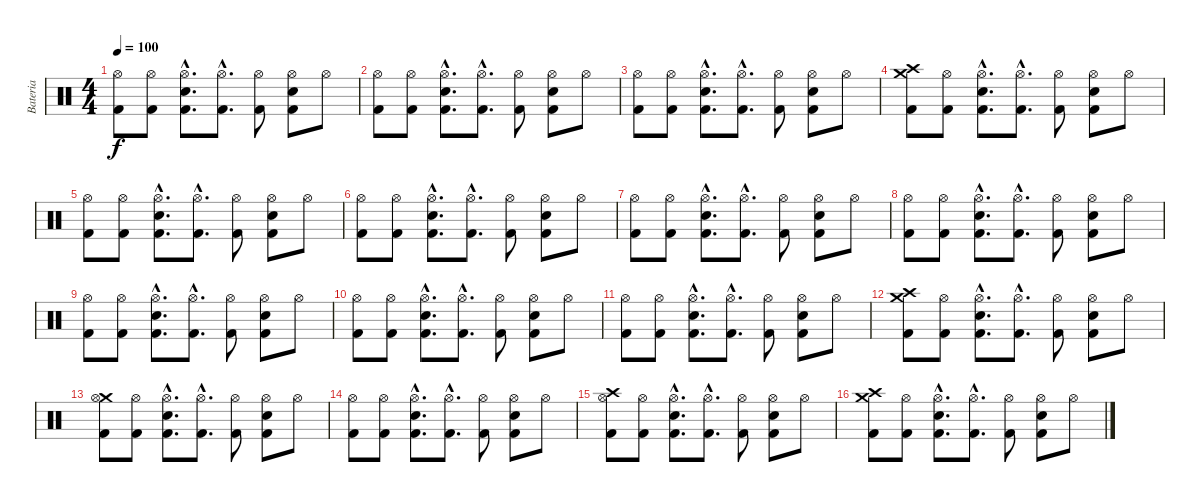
\track ("Bateria" "Bateria") {instrument percussion}
\staff {score}
\articulation defaults
\ts (4 4)
\tempo 100
\clef neutral
\ks c
("Kick (hit) 2" "Hi-Hat (open)").8{dy f} ("Kick (hit) 2" "Hi-Hat (open)").8 ("Kick (hit) 2"{hac} "Electric Snare (hit)"{hac} "Hi-Hat (open)"{hac}).8{d} ("Kick (hit) 2"{hac} "Hi-Hat (open)"{hac}).8{d} ("Kick (hit) 2" "Hi-Hat (open)").8 ("Kick (hit) 2" "Electric Snare (hit)" "Hi-Hat (open)").8 "Hi-Hat (open)".8 |
("Kick (hit) 2" "Hi-Hat (open)").8 ("Kick (hit) 2" "Hi-Hat (open)").8 ("Kick (hit) 2"{hac} "Electric Snare (hit)"{hac} "Hi-Hat (open)"{hac}).8{d} ("Kick (hit) 2"{hac} "Hi-Hat (open)"{hac}).8{d} ("Kick (hit) 2" "Hi-Hat (open)").8 ("Kick (hit) 2" "Electric Snare (hit)" "Hi-Hat (open)").8 "Hi-Hat (open)".8 |
("Kick (hit) 2" "Hi-Hat (open)").8 ("Kick (hit) 2" "Hi-Hat (open)").8 ("Kick (hit) 2"{hac} "Electric Snare (hit)"{hac} "Hi-Hat (open)"{hac}).8{d} ("Kick (hit) 2"{hac} "Hi-Hat (open)"{hac}).8{d} ("Kick (hit) 2" "Hi-Hat (open)").8 ("Kick (hit) 2" "Electric Snare (hit)" "Hi-Hat (open)").8 "Hi-Hat (open)".8 |
("Kick (hit) 2" "Crash medium (hit)" "Crash high (hit)").8 ("Kick (hit) 2" "Hi-Hat (open)").8 ("Kick (hit) 2"{hac} "Electric Snare (hit)"{hac} "Hi-Hat (open)"{hac}).8{d} ("Kick (hit) 2"{hac} "Hi-Hat (open)"{hac}).8{d} ("Kick (hit) 2" "Hi-Hat (open)").8 ("Kick (hit) 2" "Electric Snare (hit)" "Hi-Hat (open)").8 "Hi-Hat (open)".8 |
("Kick (hit) 2" "Hi-Hat (open)").8 ("Kick (hit) 2" "Hi-Hat (open)").8 ("Kick (hit) 2"{hac} "Electric Snare (hit)"{hac} "Hi-Hat (open)"{hac}).8{d} ("Kick (hit) 2"{hac} "Hi-Hat (open)"{hac}).8{d} ("Kick (hit) 2" "Hi-Hat (open)").8 ("Kick (hit) 2" "Electric Snare (hit)" "Hi-Hat (open)").8 "Hi-Hat (open)".8 |
("Kick (hit) 2" "Hi-Hat (open)").8 ("Kick (hit) 2" "Hi-Hat (open)").8 ("Kick (hit) 2"{hac} "Electric Snare (hit)"{hac} "Hi-Hat (open)"{hac}).8{d} ("Kick (hit) 2"{hac} "Hi-Hat (open)"{hac}).8{d} ("Kick (hit) 2" "Hi-Hat (open)").8 ("Kick (hit) 2" "Electric Snare (hit)" "Hi-Hat (open)").8 "Hi-Hat (open)".8 |
("Kick (hit) 2" "Hi-Hat (open)").8 ("Kick (hit) 2" "Hi-Hat (open)").8 ("Kick (hit) 2"{hac} "Electric Snare (hit)"{hac} "Hi-Hat (open)"{hac}).8{d} ("Kick (hit) 2"{hac} "Hi-Hat (open)"{hac}).8{d} ("Kick (hit) 2" "Hi-Hat (open)").8 ("Kick (hit) 2" "Electric Snare (hit)" "Hi-Hat (open)").8 "Hi-Hat (open)".8 |
("Kick (hit) 2" "Hi-Hat (open)").8 ("Kick (hit) 2" "Hi-Hat (open)").8 ("Kick (hit) 2"{hac} "Electric Snare (hit)"{hac} "Hi-Hat (open)"{hac}).8{d} ("Kick (hit) 2"{hac} "Hi-Hat (open)"{hac}).8{d} ("Kick (hit) 2" "Hi-Hat (open)").8 ("Kick (hit) 2" "Electric Snare (hit)" "Hi-Hat (open)").8 "Hi-Hat (open)".8 |
("Kick (hit) 2" "Hi-Hat (open)").8 ("Kick (hit) 2" "Hi-Hat (open)").8 ("Kick (hit) 2"{hac} "Electric Snare (hit)"{hac} "Hi-Hat (open)"{hac}).8{d} ("Kick (hit) 2"{hac} "Hi-Hat (open)"{hac}).8{d} ("Kick (hit) 2" "Hi-Hat (open)").8 ("Kick (hit) 2" "Electric Snare (hit)" "Hi-Hat (open)").8 "Hi-Hat (open)".8 |
("Kick (hit) 2" "Hi-Hat (open)").8 ("Kick (hit) 2" "Hi-Hat (open)").8 ("Kick (hit) 2"{hac} "Electric Snare (hit)"{hac} "Hi-Hat (open)"{hac}).8{d} ("Kick (hit) 2"{hac} "Hi-Hat (open)"{hac}).8{d} ("Kick (hit) 2" "Hi-Hat (open)").8 ("Kick (hit) 2" "Electric Snare (hit)" "Hi-Hat (open)").8 "Hi-Hat (open)".8 |
("Kick (hit) 2" "Hi-Hat (open)").8 ("Kick (hit) 2" "Hi-Hat (open)").8 ("Kick (hit) 2"{hac} "Electric Snare (hit)"{hac} "Hi-Hat (open)"{hac}).8{d} ("Kick (hit) 2"{hac} "Hi-Hat (open)"{hac}).8{d} ("Kick (hit) 2" "Hi-Hat (open)").8 ("Kick (hit) 2" "Electric Snare (hit)" "Hi-Hat (open)").8 "Hi-Hat (open)".8 |
("Kick (hit) 2" "Crash medium (hit)" "Crash high (hit)").8 ("Kick (hit) 2" "Hi-Hat (open)").8 ("Kick (hit) 2"{hac} "Electric Snare (hit)"{hac} "Hi-Hat (open)"{hac}).8{d} ("Kick (hit) 2"{hac} "Hi-Hat (open)"{hac}).8{d} ("Kick (hit) 2" "Hi-Hat (open)").8 ("Kick (hit) 2" "Electric Snare (hit)" "Hi-Hat (open)").8 "Hi-Hat (open)".8 |
("Kick (hit) 2" "Crash medium (hit)" "Hi-Hat (open)").8 ("Kick (hit) 2" "Hi-Hat (open)").8 ("Kick (hit) 2"{hac} "Electric Snare (hit)"{hac} "Hi-Hat (open)"{hac}).8{d} ("Kick (hit) 2"{hac} "Hi-Hat (open)"{hac}).8{d} ("Kick (hit) 2" "Hi-Hat (open)").8 ("Kick (hit) 2" "Electric Snare (hit)" "Hi-Hat (open)").8 "Hi-Hat (open)".8 |
("Kick (hit) 2" "Hi-Hat (open)").8 ("Kick (hit) 2" "Hi-Hat (open)").8 ("Kick (hit) 2"{hac} "Electric Snare (hit)"{hac} "Hi-Hat (open)"{hac}).8{d} ("Kick (hit) 2"{hac} "Hi-Hat (open)"{hac}).8{d} ("Kick (hit) 2" "Hi-Hat (open)").8 ("Kick (hit) 2" "Electric Snare (hit)" "Hi-Hat (open)").8 "Hi-Hat (open)".8 |
("Kick (hit) 2" "Crash high (hit)" "Hi-Hat (open)").8 ("Kick (hit) 2" "Hi-Hat (open)").8 ("Kick (hit) 2"{hac} "Electric Snare (hit)"{hac} "Hi-Hat (open)"{hac}).8{d} ("Kick (hit) 2"{hac} "Hi-Hat (open)"{hac}).8{d} ("Kick (hit) 2" "Hi-Hat (open)").8 ("Kick (hit) 2" "Electric Snare (hit)" "Hi-Hat (open)").8 "Hi-Hat (open)".8 |
("Kick (hit) 2" "Crash medium (hit)" "Crash high (hit)").8 ("Kick (hit) 2" "Hi-Hat (open)").8 ("Kick (hit) 2"{hac} "Electric Snare (hit)"{hac} "Hi-Hat (open)"{hac}).8{d} ("Kick (hit) 2"{hac} "Hi-Hat (open)"{hac}).8{d} ("Kick (hit) 2" "Hi-Hat (open)").8 ("Kick (hit) 2" "Electric Snare (hit)" "Hi-Hat (open)").8 "Hi-Hat (open)".8
